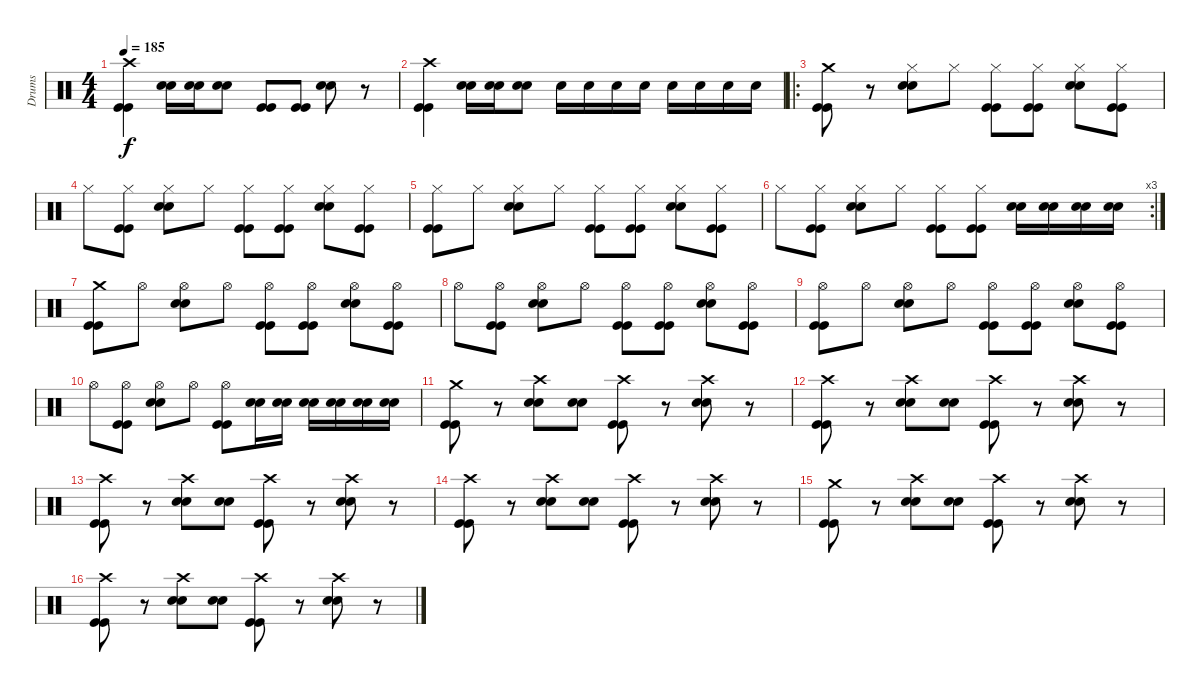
\track ("Drums" "Drums") {instrument percussion}
\staff {score}
\articulation defaults
\ts (4 4)
\tempo 185
\clef neutral
\ks c
("Crash high (hit)" "Kick (hit)" "Kick (hit)").4{dy f} ("Electric Snare (hit)" "Electric Snare (hit)").16 ("Electric Snare (hit)" "Electric Snare (hit)").16 ("Electric Snare (hit)" "Electric Snare (hit)").8 ("Kick (hit)" "Kick (hit)").8 ("Kick (hit)" "Kick (hit)").8 ("Electric Snare (hit)" "Electric Snare (hit)").8 r.8 |
("Crash high (hit)" "Kick (hit)" "Kick (hit)").4 ("Electric Snare (hit)" "Electric Snare (hit)").16 ("Electric Snare (hit)" "Electric Snare (hit)").16 ("Electric Snare (hit)" "Electric Snare (hit)").8 "Electric Snare (hit)".16 "Electric Snare (hit)".16 "Electric Snare (hit)".16 "Electric Snare (hit)".16 "Electric Snare (hit)".16 "Electric Snare (hit)".16 "Electric Snare (hit)".16 "Electric Snare (hit)".16 |
\ro
("Crash medium (hit)" "Kick (hit)" "Kick (hit)").8 r.8 ("Hi-Hat (closed)" "Electric Snare (hit)" "Electric Snare (hit)").8 "Hi-Hat (closed)".8 ("Hi-Hat (closed)" "Kick (hit)" "Kick (hit)").8 ("Hi-Hat (closed)" "Kick (hit)" "Kick (hit)").8 ("Hi-Hat (closed)" "Electric Snare (hit)" "Electric Snare (hit)").8 ("Hi-Hat (closed)" "Kick (hit)" "Kick (hit)").8 |
"Hi-Hat (closed)".8 ("Hi-Hat (closed)" "Kick (hit)" "Kick (hit)").8 ("Hi-Hat (closed)" "Electric Snare (hit)" "Electric Snare (hit)").8 "Hi-Hat (closed)".8 ("Hi-Hat (closed)" "Kick (hit)" "Kick (hit)").8 ("Hi-Hat (closed)" "Kick (hit)" "Kick (hit)").8 ("Hi-Hat (closed)" "Electric Snare (hit)" "Electric Snare (hit)").8 ("Hi-Hat (closed)" "Kick (hit)" "Kick (hit)").8 |
("Hi-Hat (closed)" "Kick (hit)" "Kick (hit)").8 "Hi-Hat (closed)".8 ("Hi-Hat (closed)" "Electric Snare (hit)" "Electric Snare (hit)").8 "Hi-Hat (closed)".8 ("Hi-Hat (closed)" "Kick (hit)" "Kick (hit)").8 ("Hi-Hat (closed)" "Kick (hit)" "Kick (hit)").8 ("Hi-Hat (closed)" "Electric Snare (hit)" "Electric Snare (hit)").8 ("Hi-Hat (closed)" "Kick (hit)" "Kick (hit)").8 |
\rc 3 "Hi-Hat (closed)".8
("Hi-Hat (closed)" "Kick (hit)" "Kick (hit)").8 ("Hi-Hat (closed)" "Electric Snare (hit)" "Electric Snare (hit)").8 "Hi-Hat (closed)".8 ("Hi-Hat (closed)" "Kick (hit)" "Kick (hit)").8 ("Hi-Hat (closed)" "Kick (hit)" "Kick (hit)").8 ("Electric Snare (hit)" "Electric Snare (hit)").16 ("Electric Snare (hit)" "Electric Snare (hit)").16 ("Electric Snare (hit)" "Electric Snare (hit)").16 ("Electric Snare (hit)" "Electric Snare (hit)").16 |
("Crash medium (hit)" "Kick (hit)" "Kick (hit)").8 "Hi-Hat (open)".8 ("Hi-Hat (open)" "Electric Snare (hit)" "Electric Snare (hit)").8 "Hi-Hat (open)".8 ("Hi-Hat (open)" "Kick (hit)" "Kick (hit)").8 ("Hi-Hat (open)" "Kick (hit)" "Kick (hit)").8 ("Hi-Hat (open)" "Electric Snare (hit)" "Electric Snare (hit)").8 ("Hi-Hat (open)" "Kick (hit)" "Kick (hit)").8 |
"Hi-Hat (open)".8 ("Hi-Hat (open)" "Kick (hit)" "Kick (hit)").8 ("Hi-Hat (open)" "Electric Snare (hit)" "Electric Snare (hit)").8 "Hi-Hat (open)".8 ("Hi-Hat (open)" "Kick (hit)" "Kick (hit)").8 ("Hi-Hat (open)" "Kick (hit)" "Kick (hit)").8 ("Hi-Hat (open)" "Electric Snare (hit)" "Electric Snare (hit)").8 ("Hi-Hat (open)" "Kick (hit)" "Kick (hit)").8 |
("Hi-Hat (open)" "Kick (hit)" "Kick (hit)").8 "Hi-Hat (open)".8 ("Hi-Hat (open)" "Electric Snare (hit)" "Electric Snare (hit)").8 "Hi-Hat (open)".8 ("Hi-Hat (open)" "Kick (hit)" "Kick (hit)").8 ("Hi-Hat (open)" "Kick (hit)" "Kick (hit)").8 ("Hi-Hat (open)" "Electric Snare (hit)" "Electric Snare (hit)").8 ("Hi-Hat (open)" "Kick (hit)" "Kick (hit)").8 |
"Hi-Hat (open)".8 ("Hi-Hat (open)" "Kick (hit)" "Kick (hit)").8 ("Hi-Hat (open)" "Electric Snare (hit)" "Electric Snare (hit)").8 "Hi-Hat (open)".8 ("Hi-Hat (open)" "Kick (hit)" "Kick (hit)").8 ("Electric Snare (hit)" "Electric Snare (hit)").16 ("Electric Snare (hit)" "Electric Snare (hit)").16 ("Electric Snare (hit)" "Electric Snare (hit)").16 ("Electric Snare (hit)" "Electric Snare (hit)").16 ("Electric Snare (hit)" "Electric Snare (hit)").16 ("Electric Snare (hit)" "Electric Snare (hit)").16 |
("Crash medium (hit)" "Kick (hit)" "Kick (hit)").8 r.8 ("Crash high (hit)" "Electric Snare (hit)" "Electric Snare (hit)").8 ("Electric Snare (hit)" "Electric Snare (hit)").8 ("Crash high (hit)" "Kick (hit)" "Kick (hit)").8 r.8 ("Crash high (hit)" "Electric Snare (hit)" "Electric Snare (hit)").8 r.8 |
("Crash high (hit)" "Kick (hit)" "Kick (hit)").8 r.8 ("Crash high (hit)" "Electric Snare (hit)" "Electric Snare (hit)").8 ("Electric Snare (hit)" "Electric Snare (hit)").8 ("Crash high (hit)" "Kick (hit)" "Kick (hit)").8 r.8 ("Crash high (hit)" "Electric Snare (hit)" "Electric Snare (hit)").8 r.8 |
("Crash high (hit)" "Kick (hit)" "Kick (hit)").8 r.8 ("Crash high (hit)" "Electric Snare (hit)" "Electric Snare (hit)").8 ("Electric Snare (hit)" "Electric Snare (hit)").8 ("Crash high (hit)" "Kick (hit)" "Kick (hit)").8 r.8 ("Crash high (hit)" "Electric Snare (hit)" "Electric Snare (hit)").8 r.8 |
("Crash high (hit)" "Kick (hit)" "Kick (hit)").8 r.8 ("Crash high (hit)" "Electric Snare (hit)" "Electric Snare (hit)").8 ("Electric Snare (hit)" "Electric Snare (hit)").8 ("Crash high (hit)" "Kick (hit)" "Kick (hit)").8 r.8 ("Crash high (hit)" "Electric Snare (hit)" "Electric Snare (hit)").8 r.8 |
("Crash medium (hit)" "Kick (hit)" "Kick (hit)").8 r.8 ("Crash high (hit)" "Electric Snare (hit)" "Electric Snare (hit)").8 ("Electric Snare (hit)" "Electric Snare (hit)").8 ("Crash high (hit)" "Kick (hit)" "Kick (hit)").8 r.8 ("Crash high (hit)" "Electric Snare (hit)" "Electric Snare (hit)").8 r.8 |
("Crash high (hit)" "Kick (hit)" "Kick (hit)").8 r.8 ("Crash high (hit)" "Electric Snare (hit)" "Electric Snare (hit)").8 ("Electric Snare (hit)" "Electric Snare (hit)").8 ("Crash high (hit)" "Kick (hit)" "Kick (hit)").8 r.8 ("Crash high (hit)" "Electric Snare (hit)" "Electric Snare (hit)").8 r.8
